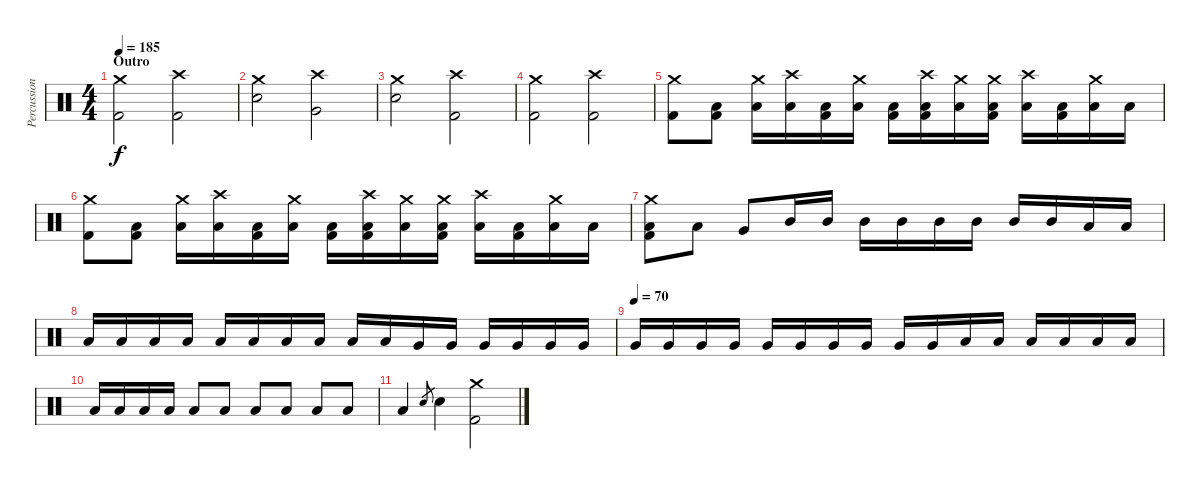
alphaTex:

\track ("Percussions" "Percussion") {instrument percussion}
\staff {score}
\articulation defaults
\ts (4 4)
\section ("" "Outro")
\tempo 185
\clef neutral
\ks c
("Crash medium (hit)" "Kick (hit) 2").2{dy f} ("Crash high (hit)" "Kick (hit) 2").2 |
("Crash medium (hit)" "Electric Snare (hit)").2 ("Crash high (hit)" "Very Low Tom (hit)").2 |
("Crash medium (hit)" "Electric Snare (hit)").2 ("Crash high (hit)" "Kick (hit) 2").2 |
("Crash medium (hit)" "Kick (hit) 2").2 ("Crash high (hit)" "Kick (hit) 2").2 |
("Crash medium (hit)" "Kick (hit) 2").8 ("Low Floor Tom (hit)" "Kick (hit) 2").8 ("Crash medium (hit)" "Low Floor Tom (hit)").16 ("Crash high (hit)" "Low Floor Tom (hit)").16 ("Low Floor Tom (hit)" "Kick (hit) 2").16 ("Crash medium (hit)" "Low Floor Tom (hit)").16 ("Low Floor Tom (hit)" "Kick (hit) 2").16 ("Crash high (hit)" "Low Floor Tom (hit)" "Kick (hit) 2").16 ("Crash medium (hit)" "Low Floor Tom (hit)").16 ("Crash medium (hit)" "Low Floor Tom (hit)" "Kick (hit) 2").16 ("Crash high (hit)" "Low Floor Tom (hit)").16 ("Low Floor Tom (hit)" "Kick (hit) 2").16 ("Crash medium (hit)" "Low Floor Tom (hit)").16 "Low Floor Tom (hit)".16 |
("Crash medium (hit)" "Kick (hit) 2").8 ("Low Floor Tom (hit)" "Kick (hit) 2").8 ("Crash medium (hit)" "Low Floor Tom (hit)").16 ("Crash high (hit)" "Low Floor Tom (hit)").16 ("Low Floor Tom (hit)" "Kick (hit) 2").16 ("Crash medium (hit)" "Low Floor Tom (hit)").16 ("Low Floor Tom (hit)" "Kick (hit) 2").16 ("Crash high (hit)" "Low Floor Tom (hit)" "Kick (hit) 2").16 ("Crash medium (hit)" "Low Floor Tom (hit)").16 ("Crash medium (hit)" "Low Floor Tom (hit)" "Kick (hit) 2").16 ("Crash high (hit)" "Low Floor Tom (hit)").16 ("Low Floor Tom (hit)" "Kick (hit) 2").16 ("Crash medium (hit)" "Low Floor Tom (hit)").16 "Low Floor Tom (hit)".16 |
("Crash medium (hit)" "Low Floor Tom (hit)" "Kick (hit) 2").8 "Low Floor Tom (hit)".8 "Very Low Tom (hit)".8 "Mid Tom (hit)".16 "Mid Tom (hit)".16 "Mid Tom (hit)".16 "Mid Tom (hit)".16 "Mid Tom (hit)".16 "Mid Tom (hit)".16 "Mid Tom (hit)".16 "Mid Tom (hit)".16 "Low Tom (hit)".16 "Low Tom (hit)".16 |
"Low Tom (hit)".16 "Low Tom (hit)".16 "Low Tom (hit)".16 "Low Tom (hit)".16 "Low Tom (hit)".16 "Low Tom (hit)".16 "Low Tom (hit)".16 "Low Tom (hit)".16 "Low Tom (hit)".16 "Low Tom (hit)".16 "Very Low Tom (hit)".16 "Very Low Tom (hit)".16 "Very Low Tom (hit)".16 "Very Low Tom (hit)".16 "Very Low Tom (hit)".16 "Very Low Tom (hit)".16 |
\tempo (70)
"Very Low Tom (hit)".16 "Very Low Tom (hit)".16 "Very Low Tom (hit)".16 "Very Low Tom (hit)".16 "Very Low Tom (hit)".16 "Very Low Tom (hit)".16 "Very Low Tom (hit)".16 "Very Low Tom (hit)".16 "Very Low Tom (hit)".16 "Very Low Tom (hit)".16 "Low Floor Tom (hit)".16 "Low Floor Tom (hit)".16 "Low Floor Tom (hit)".16 "Low Floor Tom (hit)".16 "Low Floor Tom (hit)".16 "Low Floor Tom (hit)".16 |
"Low Floor Tom (hit)".16 "Low Floor Tom (hit)".16 "Low Floor Tom (hit)".16 "Low Floor Tom (hit)".16 "Low Floor Tom (hit)".8 "Low Floor Tom (hit)".8 "Low Floor Tom (hit)".8 "Low Floor Tom (hit)".8 "Low Floor Tom (hit)".8 "Low Floor Tom (hit)".8 |
"Low Floor Tom (hit)".4 "Electric Snare (hit)".8{gr} "Electric Snare (hit)".4 ("Crash medium (hit)" "Kick (hit) 2").2
